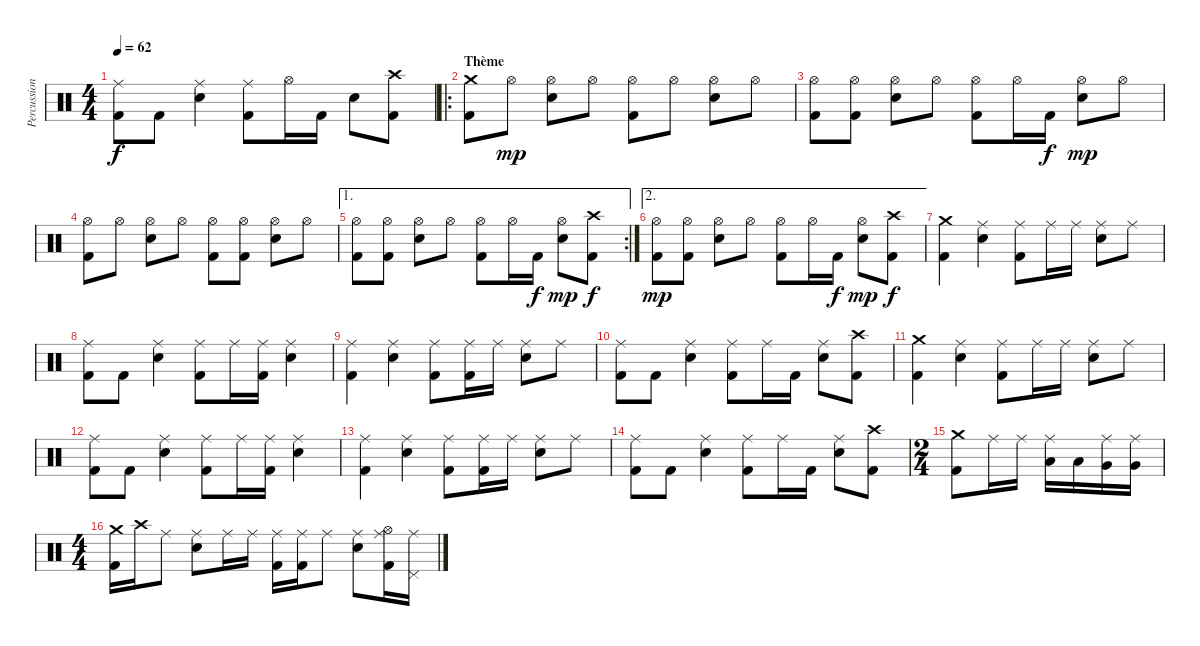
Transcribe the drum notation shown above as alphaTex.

\track ("Percussions" "Percussion") {instrument percussion}
\staff {score}
\articulation defaults
\ts (4 4)
\tempo 62
\clef neutral
\ks c
("Ride (middle)" "Kick (hit) 2").8{dy f} "Kick (hit) 2".8 ("Ride (middle)" "Snare (hit) 2").4 ("Ride (middle)" "Kick (hit) 2").8 "Hi-Hat (open)".16 "Kick (hit) 2".16 "Snare (hit) 2".8 ("Crash high (hit)" "Kick (hit) 2").8 |
\ro
\section ("" "Thème")
("Crash medium (hit)" "Kick (hit) 2").8 "Hi-Hat (open)".8{dy mp} ("Hi-Hat (open)" "Snare (hit) 2").8 "Hi-Hat (open)".8 ("Hi-Hat (open)" "Kick (hit) 2").8 "Hi-Hat (open)".8 ("Hi-Hat (open)" "Snare (hit) 2").8 "Hi-Hat (open)".8 |
("Hi-Hat (open)" "Kick (hit) 2").8 ("Hi-Hat (open)" "Kick (hit) 2").8 ("Hi-Hat (open)" "Snare (hit) 2").8 "Hi-Hat (open)".8 ("Hi-Hat (open)" "Kick (hit) 2").8 "Hi-Hat (open)".16 "Kick (hit) 2".16{dy f} ("Hi-Hat (open)" "Snare (hit) 2").8{dy mp} "Hi-Hat (open)".8 |
("Hi-Hat (open)" "Kick (hit) 2").8 "Hi-Hat (open)".8 ("Hi-Hat (open)" "Snare (hit) 2").8 "Hi-Hat (open)".8 ("Hi-Hat (open)" "Kick (hit) 2").8 ("Hi-Hat (open)" "Kick (hit) 2").8 ("Hi-Hat (open)" "Snare (hit) 2").8 "Hi-Hat (open)".8 |
\ae 1
\rc 2
("Hi-Hat (open)" "Kick (hit) 2").8 ("Hi-Hat (open)" "Kick (hit) 2").8 ("Hi-Hat (open)" "Snare (hit) 2").8 "Hi-Hat (open)".8 ("Hi-Hat (open)" "Kick (hit) 2").8 "Hi-Hat (open)".16 "Kick (hit) 2".16{dy f} ("Hi-Hat (open)" "Snare (hit) 2").8{dy mp} ("Crash high (hit)" "Kick (hit) 2").8{dy f} |
\ae 2
("Hi-Hat (open)" "Kick (hit) 2").8{dy mp} ("Hi-Hat (open)" "Kick (hit) 2").8 ("Hi-Hat (open)" "Snare (hit) 2").8 "Hi-Hat (open)".8 ("Hi-Hat (open)" "Kick (hit) 2").8 "Hi-Hat (open)".16 "Kick (hit) 2".16{dy f} ("Hi-Hat (open)" "Snare (hit) 2").8{dy mp} ("Crash high (hit)" "Kick (hit) 2").8{dy f} |
("Crash medium (hit)" "Kick (hit) 2").4 ("Ride (middle)" "Snare (hit) 2").4 ("Ride (middle)" "Kick (hit) 2").8 "Ride (middle)".16 "Ride (middle)".16 ("Ride (middle)" "Snare (hit) 2").8 "Ride (middle)".8 |
("Ride (middle)" "Kick (hit) 2").8 "Kick (hit) 2".8 ("Ride (middle)" "Snare (hit) 2").4 ("Ride (middle)" "Kick (hit) 2").8 "Ride (middle)".16 ("Ride (middle)" "Kick (hit) 2").16 ("Ride (middle)" "Snare (hit) 2").4 |
("Ride (middle)" "Kick (hit) 2").4 ("Ride (middle)" "Snare (hit) 2").4 ("Ride (middle)" "Kick (hit) 2").8 ("Ride (middle)" "Kick (hit) 2").16 "Ride (middle)".16 ("Ride (middle)" "Snare (hit) 2").8 "Ride (middle)".8 |
("Ride (middle)" "Kick (hit) 2").8 "Kick (hit) 2".8 ("Ride (middle)" "Snare (hit) 2").4 ("Ride (middle)" "Kick (hit) 2").8 "Ride (middle)".16 "Kick (hit) 2".16 ("Ride (middle)" "Snare (hit) 2").8 ("Crash high (hit)" "Kick (hit) 2").8 |
("Crash medium (hit)" "Kick (hit) 2").4 ("Ride (middle)" "Snare (hit) 2").4 ("Ride (middle)" "Kick (hit) 2").8 "Ride (middle)".16 "Ride (middle)".16 ("Ride (middle)" "Snare (hit) 2").8 "Ride (middle)".8 |
("Ride (middle)" "Kick (hit) 2").8 "Kick (hit) 2".8 ("Ride (middle)" "Snare (hit) 2").4 ("Ride (middle)" "Kick (hit) 2").8 "Ride (middle)".16 ("Ride (middle)" "Kick (hit) 2").16 ("Ride (middle)" "Snare (hit) 2").4 |
("Ride (middle)" "Kick (hit) 2").4 ("Ride (middle)" "Snare (hit) 2").4 ("Ride (middle)" "Kick (hit) 2").8 ("Ride (middle)" "Kick (hit) 2").16 "Ride (middle)".16 ("Ride (middle)" "Snare (hit) 2").8 "Ride (middle)".8 |
("Ride (middle)" "Kick (hit) 2").8 "Kick (hit) 2".8 ("Ride (middle)" "Snare (hit) 2").4 ("Ride (middle)" "Kick (hit) 2").8 "Ride (middle)".16 "Kick (hit) 2".16 ("Ride (middle)" "Snare (hit) 2").8 ("Crash high (hit)" "Kick (hit) 2").8 |
\ts (2 4)
("Crash medium (hit)" "Kick (hit) 2").8 "Ride (middle)".16 "Ride (middle)".16 ("Ride (middle)" "Low Tom (hit)").16 "Low Tom (hit)".16 ("Ride (middle)" "Very Low Tom (hit)").16 ("Ride (middle)" "Very Low Tom (hit)").16 |
\ts (4 4)
("Crash medium (hit)" "Kick (hit) 2").16 "Crash high (hit)".16 "Ride (middle)".8 ("Ride (middle)" "Snare (hit) 2").8 "Ride (middle)".16 "Ride (middle)".16 ("Ride (middle)" "Kick (hit) 2").16 ("Ride (middle)" "Kick (hit) 2").16 "Ride (middle)".8 ("Ride (middle)" "Snare (hit) 2").8 ("Ride (middle)" "Hi-Hat (open)" "Kick (hit) 2").16 ("Ride (middle)" "Pedal Hi-Hat (hit)").16
